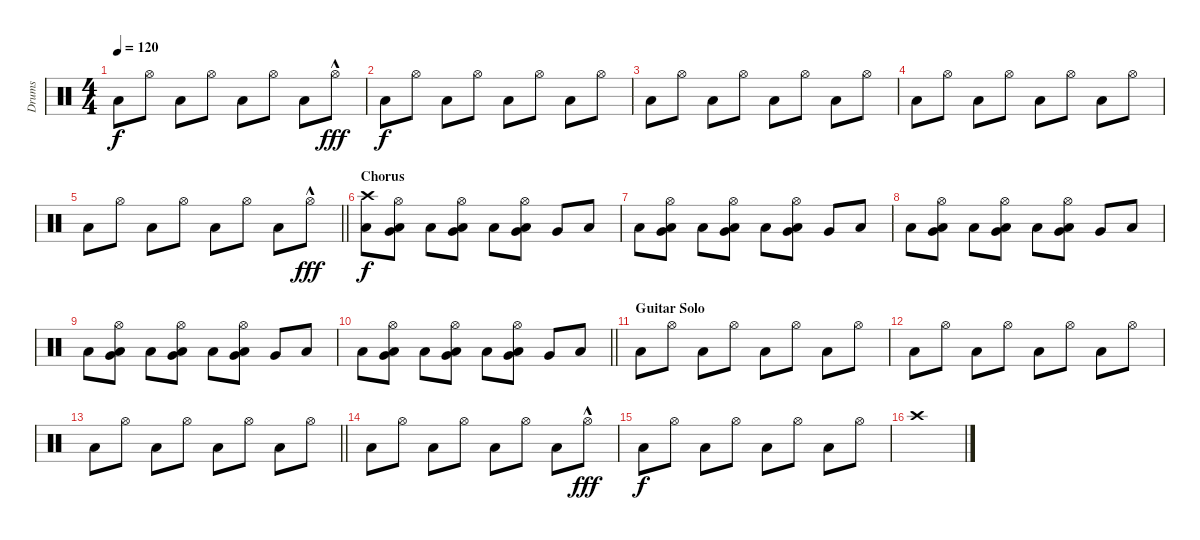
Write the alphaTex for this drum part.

\track ("Drums" "Drums") {instrument percussion}
\staff {score}
\articulation defaults
\ts (4 4)
\tempo 120
\clef neutral
\ks c "Low Floor Tom (hit)".8{dy f} "Hi-Hat (open)".8 "Low Floor Tom (hit)".8 "Hi-Hat (open)".8 "Low Floor Tom (hit)".8 "Hi-Hat (open)".8 "Low Floor Tom (hit)".8 "Hi-Hat (open)"{hac}.8{dy fff}
|
"Low Floor Tom (hit)".8{dy f} "Hi-Hat (open)".8 "Low Floor Tom (hit)".8 "Hi-Hat (open)".8 "Low Floor Tom (hit)".8 "Hi-Hat (open)".8 "Low Floor Tom (hit)".8 "Hi-Hat (open)".8 |
"Low Floor Tom (hit)".8 "Hi-Hat (open)".8 "Low Floor Tom (hit)".8 "Hi-Hat (open)".8 "Low Floor Tom (hit)".8 "Hi-Hat (open)".8 "Low Floor Tom (hit)".8 "Hi-Hat (open)".8 |
"Low Floor Tom (hit)".8 "Hi-Hat (open)".8 "Low Floor Tom (hit)".8 "Hi-Hat (open)".8 "Low Floor Tom (hit)".8 "Hi-Hat (open)".8 "Low Floor Tom (hit)".8 "Hi-Hat (open)".8 |
\barLineRight lightlight "Low Floor Tom (hit)".8 "Hi-Hat (open)".8 "Low Floor Tom (hit)".8 "Hi-Hat (open)".8 "Low Floor Tom (hit)".8 "Hi-Hat (open)".8 "Low Floor Tom (hit)".8 "Hi-Hat (open)"{hac}.8{dy fff}
|
\section ("" "Chorus")
("Crash high (hit)" "Low Floor Tom (hit)").8{dy f} ("Hi-Hat (open)" "Low Tom (hit)" "Very Low Tom (hit)").8 "Low Floor Tom (hit)".8 ("Hi-Hat (open)" "Low Tom (hit)" "Very Low Tom (hit)").8 "Low Floor Tom (hit)".8 ("Hi-Hat (open)" "Low Tom (hit)" "Very Low Tom (hit)").8 "Very Low Tom (hit)".8 "Low Floor Tom (hit)".8 |
"Low Floor Tom (hit)".8 ("Hi-Hat (open)" "Low Tom (hit)" "Very Low Tom (hit)").8 "Low Floor Tom (hit)".8 ("Hi-Hat (open)" "Low Tom (hit)" "Very Low Tom (hit)").8 "Low Floor Tom (hit)".8 ("Hi-Hat (open)" "Low Tom (hit)" "Very Low Tom (hit)").8 "Very Low Tom (hit)".8 "Low Floor Tom (hit)".8 |
"Low Floor Tom (hit)".8 ("Hi-Hat (open)" "Low Tom (hit)" "Very Low Tom (hit)").8 "Low Floor Tom (hit)".8 ("Hi-Hat (open)" "Low Tom (hit)" "Very Low Tom (hit)").8 "Low Floor Tom (hit)".8 ("Hi-Hat (open)" "Low Tom (hit)" "Very Low Tom (hit)").8 "Very Low Tom (hit)".8 "Low Floor Tom (hit)".8 |
"Low Floor Tom (hit)".8 ("Hi-Hat (open)" "Low Tom (hit)" "Very Low Tom (hit)").8 "Low Floor Tom (hit)".8 ("Hi-Hat (open)" "Low Tom (hit)" "Very Low Tom (hit)").8 "Low Floor Tom (hit)".8 ("Hi-Hat (open)" "Low Tom (hit)" "Very Low Tom (hit)").8 "Very Low Tom (hit)".8 "Low Floor Tom (hit)".8 |
\barLineRight lightlight "Low Floor Tom (hit)".8
("Hi-Hat (open)" "Low Tom (hit)" "Very Low Tom (hit)").8 "Low Floor Tom (hit)".8 ("Hi-Hat (open)" "Low Tom (hit)" "Very Low Tom (hit)").8 "Low Floor Tom (hit)".8 ("Hi-Hat (open)" "Low Tom (hit)" "Very Low Tom (hit)").8 "Very Low Tom (hit)".8 "Low Floor Tom (hit)".8 |
\section ("" "Guitar Solo")
"Low Floor Tom (hit)".8 "Hi-Hat (open)".8 "Low Floor Tom (hit)".8 "Hi-Hat (open)".8 "Low Floor Tom (hit)".8 "Hi-Hat (open)".8 "Low Floor Tom (hit)".8 "Hi-Hat (open)".8 |
"Low Floor Tom (hit)".8 "Hi-Hat (open)".8 "Low Floor Tom (hit)".8 "Hi-Hat (open)".8 "Low Floor Tom (hit)".8 "Hi-Hat (open)".8 "Low Floor Tom (hit)".8 "Hi-Hat (open)".8 |
\barLineRight lightlight "Low Floor Tom (hit)".8 "Hi-Hat (open)".8 "Low Floor Tom (hit)".8 "Hi-Hat (open)".8 "Low Floor Tom (hit)".8 "Hi-Hat (open)".8 "Low Floor Tom (hit)".8 "Hi-Hat (open)".8
|
"Low Floor Tom (hit)".8 "Hi-Hat (open)".8 "Low Floor Tom (hit)".8 "Hi-Hat (open)".8 "Low Floor Tom (hit)".8 "Hi-Hat (open)".8 "Low Floor Tom (hit)".8 "Hi-Hat (open)"{hac}.8{dy fff} |
"Low Floor Tom (hit)".8{dy f} "Hi-Hat (open)".8 "Low Floor Tom (hit)".8 "Hi-Hat (open)".8 "Low Floor Tom (hit)".8 "Hi-Hat (open)".8 "Low Floor Tom (hit)".8 "Hi-Hat (open)".8 |
"Crash high (hit)".1
